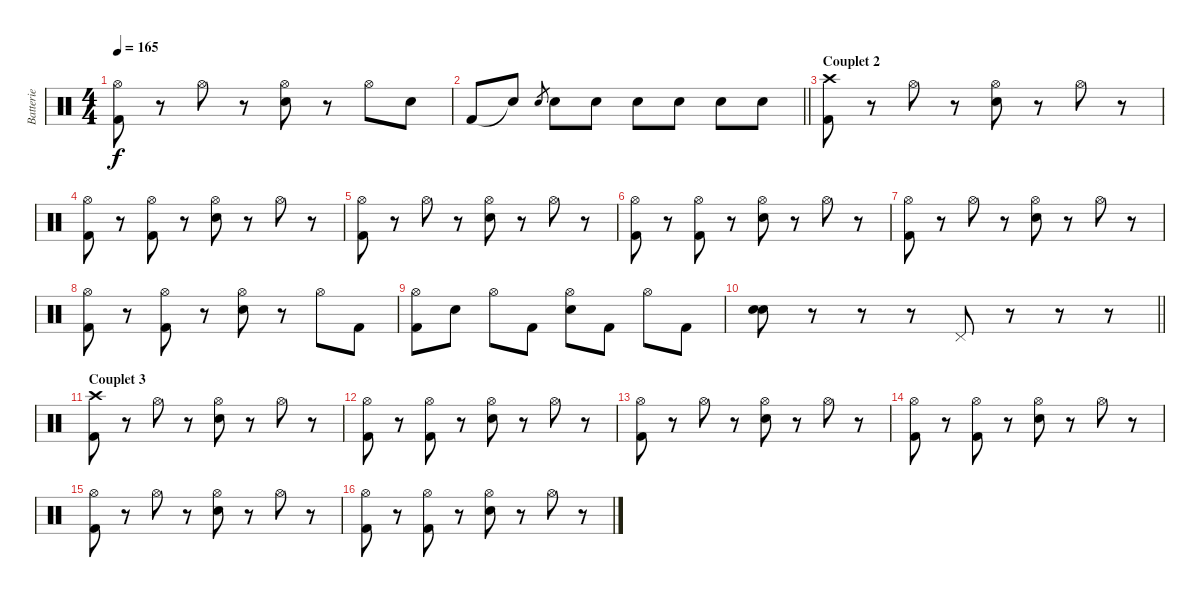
\track ("Batterie" "Batterie") {instrument percussion}
\staff {score}
\articulation defaults
\ts (4 4)
\tempo 165
\clef neutral
\ks c
("Hi-Hat (open)" "Kick (hit) 2").8{dy f} r.8 "Hi-Hat (open)".8 r.8 ("Hi-Hat (open)" "Electric Snare (hit)").8 r.8 "Hi-Hat (open)".8 "Electric Snare (hit)".8 |
\barLineRight lightlight "Kick (hit) 2".8 "Snare (hit)"{t}.8 "Electric Snare (hit)".8{gr} "Electric Snare (hit)".8 "Electric Snare (hit)".8 "Electric Snare (hit)".8 "Electric Snare (hit)".8 "Electric Snare (hit)".8 "Electric Snare (hit)".8
|
\section ("" "Couplet 2 ")
("Crash high (hit)" "Kick (hit) 2").8 r.8 "Hi-Hat (open)".8 r.8 ("Hi-Hat (open)" "Electric Snare (hit)").8 r.8 "Hi-Hat (open)".8 r.8 |
("Hi-Hat (open)" "Kick (hit) 2").8 r.8 ("Hi-Hat (open)" "Kick (hit) 2").8 r.8 ("Hi-Hat (open)" "Electric Snare (hit)").8 r.8 "Hi-Hat (open)".8 r.8 |
("Hi-Hat (open)" "Kick (hit) 2").8 r.8 "Hi-Hat (open)".8 r.8 ("Hi-Hat (open)" "Electric Snare (hit)").8 r.8 "Hi-Hat (open)".8 r.8 |
("Hi-Hat (open)" "Kick (hit) 2").8 r.8 ("Hi-Hat (open)" "Kick (hit) 2").8 r.8 ("Hi-Hat (open)" "Electric Snare (hit)").8 r.8 "Hi-Hat (open)".8 r.8 |
("Hi-Hat (open)" "Kick (hit) 2").8 r.8 "Hi-Hat (open)".8 r.8 ("Hi-Hat (open)" "Electric Snare (hit)").8 r.8 "Hi-Hat (open)".8 r.8 |
("Hi-Hat (open)" "Kick (hit) 2").8 r.8 ("Hi-Hat (open)" "Kick (hit) 2").8 r.8 ("Hi-Hat (open)" "Electric Snare (hit)").8 r.8 "Hi-Hat (open)".8 "Kick (hit) 2".8 |
("Hi-Hat (open)" "Kick (hit) 2").8 "Electric Snare (hit)".8 "Hi-Hat (open)".8 "Kick (hit) 2".8 ("Hi-Hat (open)" "Electric Snare (hit)").8 "Kick (hit) 2".8 "Hi-Hat (open)".8 "Kick (hit) 2".8 |
\barLineRight lightlight
("Electric Snare (hit)" "Electric Snare (hit)").8{bu 120} r.8 r.8 r.8 "Pedal Hi-Hat (hit)".8 r.8 r.8 r.8 |
\section ("" "Couplet 3 ")
("Crash high (hit)" "Kick (hit) 2").8 r.8 "Hi-Hat (open)".8 r.8 ("Hi-Hat (open)" "Electric Snare (hit)").8 r.8 "Hi-Hat (open)".8 r.8 |
("Hi-Hat (open)" "Kick (hit) 2").8 r.8 ("Hi-Hat (open)" "Kick (hit) 2").8 r.8 ("Hi-Hat (open)" "Electric Snare (hit)").8 r.8 "Hi-Hat (open)".8 r.8 |
("Hi-Hat (open)" "Kick (hit) 2").8 r.8 "Hi-Hat (open)".8 r.8 ("Hi-Hat (open)" "Electric Snare (hit)").8 r.8 "Hi-Hat (open)".8 r.8 |
("Hi-Hat (open)" "Kick (hit) 2").8 r.8 ("Hi-Hat (open)" "Kick (hit) 2").8 r.8 ("Hi-Hat (open)" "Electric Snare (hit)").8 r.8 "Hi-Hat (open)".8 r.8 |
("Hi-Hat (open)" "Kick (hit) 2").8 r.8 "Hi-Hat (open)".8 r.8 ("Hi-Hat (open)" "Electric Snare (hit)").8 r.8 "Hi-Hat (open)".8 r.8 |
("Hi-Hat (open)" "Kick (hit) 2").8 r.8 ("Hi-Hat (open)" "Kick (hit) 2").8 r.8 ("Hi-Hat (open)" "Electric Snare (hit)").8 r.8 "Hi-Hat (open)".8 r.8
